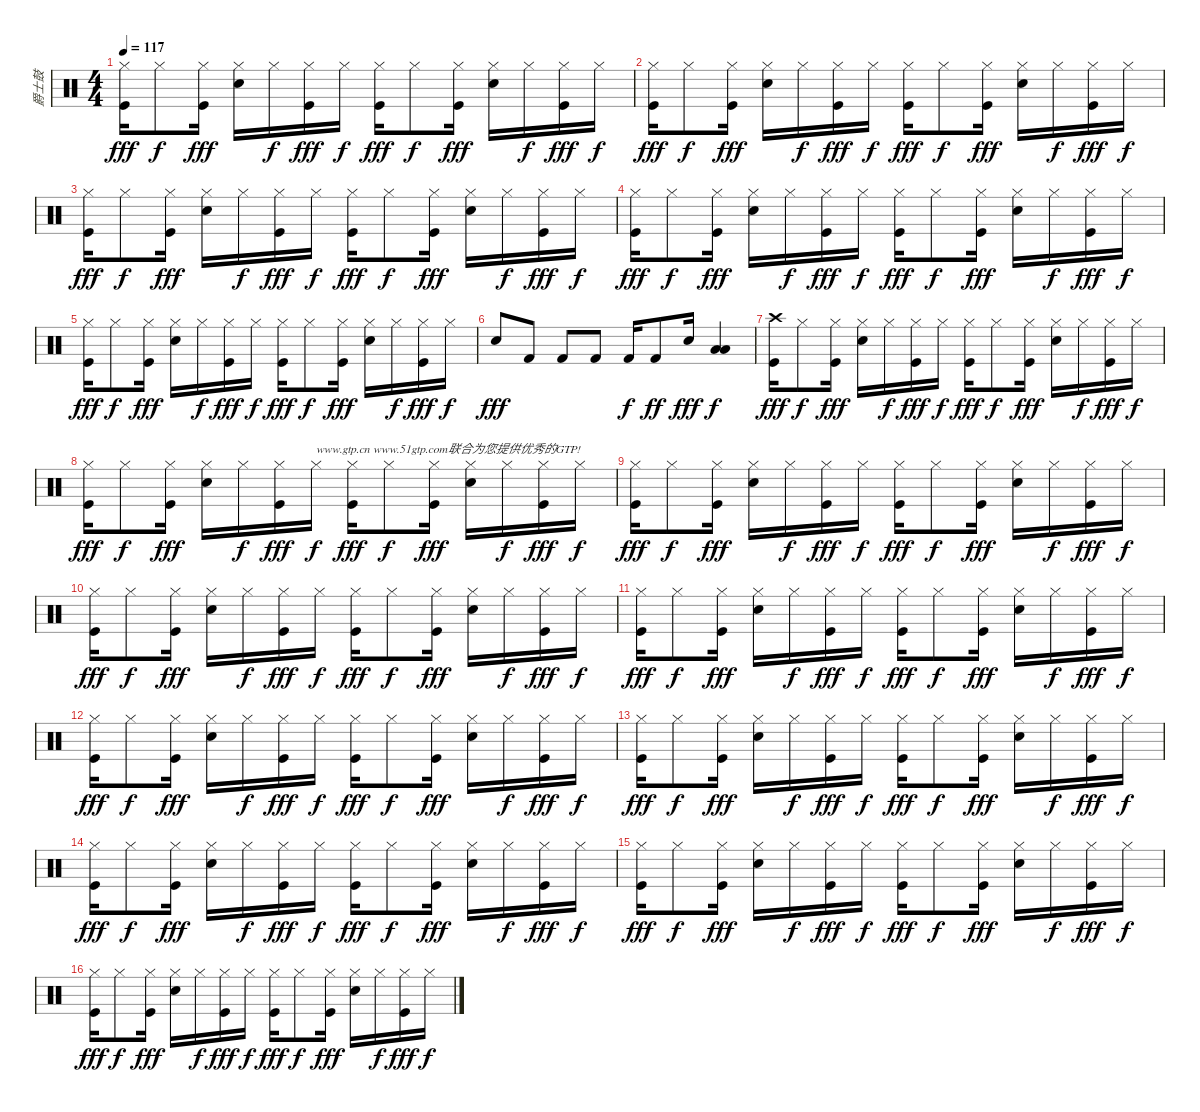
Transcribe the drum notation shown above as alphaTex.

\track ("爵士鼓" "爵士鼓") {instrument percussion}
\staff {score}
\articulation defaults
\ts (4 4)
\tempo 117
\clef neutral
\ks c
("Kick (hit)" "Hi-Hat (closed)").16{dy fff} "Hi-Hat (closed)".8{dy f} ("Kick (hit)" "Hi-Hat (closed)").16{dy fff} ("Snare (hit) 2" "Hi-Hat (closed)").16 "Hi-Hat (closed)".16{dy f} ("Kick (hit)" "Hi-Hat (closed)").16{dy fff} "Hi-Hat (closed)".16{dy f} ("Kick (hit)" "Hi-Hat (closed)").16{dy fff} "Hi-Hat (closed)".8{dy f} ("Kick (hit)" "Hi-Hat (closed)").16{dy fff} ("Snare (hit) 2" "Hi-Hat (closed)").16 "Hi-Hat (closed)".16{dy f} ("Kick (hit)" "Hi-Hat (closed)").16{dy fff} "Hi-Hat (closed)".16{dy f} |
("Kick (hit)" "Hi-Hat (closed)").16{dy fff} "Hi-Hat (closed)".8{dy f} ("Kick (hit)" "Hi-Hat (closed)").16{dy fff} ("Snare (hit) 2" "Hi-Hat (closed)").16 "Hi-Hat (closed)".16{dy f} ("Kick (hit)" "Hi-Hat (closed)").16{dy fff} "Hi-Hat (closed)".16{dy f} ("Kick (hit)" "Hi-Hat (closed)").16{dy fff} "Hi-Hat (closed)".8{dy f} ("Kick (hit)" "Hi-Hat (closed)").16{dy fff} ("Snare (hit) 2" "Hi-Hat (closed)").16 "Hi-Hat (closed)".16{dy f} ("Kick (hit)" "Hi-Hat (closed)").16{dy fff} "Hi-Hat (closed)".16{dy f} |
("Kick (hit)" "Hi-Hat (closed)").16{dy fff} "Hi-Hat (closed)".8{dy f} ("Kick (hit)" "Hi-Hat (closed)").16{dy fff} ("Snare (hit) 2" "Hi-Hat (closed)").16 "Hi-Hat (closed)".16{dy f} ("Kick (hit)" "Hi-Hat (closed)").16{dy fff} "Hi-Hat (closed)".16{dy f} ("Kick (hit)" "Hi-Hat (closed)").16{dy fff} "Hi-Hat (closed)".8{dy f} ("Kick (hit)" "Hi-Hat (closed)").16{dy fff} ("Snare (hit) 2" "Hi-Hat (closed)").16 "Hi-Hat (closed)".16{dy f} ("Kick (hit)" "Hi-Hat (closed)").16{dy fff} "Hi-Hat (closed)".16{dy f} |
("Kick (hit)" "Hi-Hat (closed)").16{dy fff} "Hi-Hat (closed)".8{dy f} ("Kick (hit)" "Hi-Hat (closed)").16{dy fff} ("Snare (hit) 2" "Hi-Hat (closed)").16 "Hi-Hat (closed)".16{dy f} ("Kick (hit)" "Hi-Hat (closed)").16{dy fff} "Hi-Hat (closed)".16{dy f} ("Kick (hit)" "Hi-Hat (closed)").16{dy fff} "Hi-Hat (closed)".8{dy f} ("Kick (hit)" "Hi-Hat (closed)").16{dy fff} ("Snare (hit) 2" "Hi-Hat (closed)").16 "Hi-Hat (closed)".16{dy f} ("Kick (hit)" "Hi-Hat (closed)").16{dy fff} "Hi-Hat (closed)".16{dy f} |
("Kick (hit)" "Hi-Hat (closed)").16{dy fff} "Hi-Hat (closed)".8{dy f} ("Kick (hit)" "Hi-Hat (closed)").16{dy fff} ("Snare (hit) 2" "Hi-Hat (closed)").16 "Hi-Hat (closed)".16{dy f} ("Kick (hit)" "Hi-Hat (closed)").16{dy fff} "Hi-Hat (closed)".16{dy f} ("Kick (hit)" "Hi-Hat (closed)").16{dy fff} "Hi-Hat (closed)".8{dy f} ("Kick (hit)" "Hi-Hat (closed)").16{dy fff} ("Snare (hit) 2" "Hi-Hat (closed)").16 "Hi-Hat (closed)".16{dy f} ("Kick (hit)" "Hi-Hat (closed)").16{dy fff} "Hi-Hat (closed)".16{dy f} |
"Snare (hit) 2".8{dy fff} "Kick (hit) 2".8 "Kick (hit) 2".8 "Kick (hit) 2".8 "Kick (hit) 2".16{dy f} "Kick (hit) 2".8{dy ff} "Snare (hit) 2".16{dy fff} ("Low Tom (hit)" "Low Floor Tom (hit)").4{dy f} |
("Kick (hit)" "Crash high (hit)").16{dy fff} "Hi-Hat (closed)".8{dy f} ("Kick (hit)" "Hi-Hat (closed)").16{dy fff} ("Snare (hit) 2" "Hi-Hat (closed)").16 "Hi-Hat (closed)".16{dy f} ("Kick (hit)" "Hi-Hat (closed)").16{dy fff} "Hi-Hat (closed)".16{dy f} ("Kick (hit)" "Hi-Hat (closed)").16{dy fff} "Hi-Hat (closed)".8{dy f} ("Kick (hit)" "Hi-Hat (closed)").16{dy fff} ("Snare (hit) 2" "Hi-Hat (closed)").16 "Hi-Hat (closed)".16{dy f} ("Kick (hit)" "Hi-Hat (closed)").16{dy fff} "Hi-Hat (closed)".16{dy f} |
("Kick (hit)" "Hi-Hat (closed)").16{dy fff} "Hi-Hat (closed)".8{dy f} ("Kick (hit)" "Hi-Hat (closed)").16{dy fff} ("Snare (hit) 2" "Hi-Hat (closed)").16 "Hi-Hat (closed)".16{dy f} ("Kick (hit)" "Hi-Hat (closed)").16{dy fff} "Hi-Hat (closed)".16{txt "www.gtp.cn www.51gtp.com联合为您提供优秀的GTP!" dy f} ("Kick (hit)" "Hi-Hat (closed)").16{dy fff} "Hi-Hat (closed)".8{dy f} ("Kick (hit)" "Hi-Hat (closed)").16{dy fff} ("Snare (hit) 2" "Hi-Hat (closed)").16 "Hi-Hat (closed)".16{dy f} ("Kick (hit)" "Hi-Hat (closed)").16{dy fff} "Hi-Hat (closed)".16{dy f} |
("Kick (hit)" "Hi-Hat (closed)").16{dy fff} "Hi-Hat (closed)".8{dy f} ("Kick (hit)" "Hi-Hat (closed)").16{dy fff} ("Snare (hit) 2" "Hi-Hat (closed)").16 "Hi-Hat (closed)".16{dy f} ("Kick (hit)" "Hi-Hat (closed)").16{dy fff} "Hi-Hat (closed)".16{dy f} ("Kick (hit)" "Hi-Hat (closed)").16{dy fff} "Hi-Hat (closed)".8{dy f} ("Kick (hit)" "Hi-Hat (closed)").16{dy fff} ("Snare (hit) 2" "Hi-Hat (closed)").16 "Hi-Hat (closed)".16{dy f} ("Kick (hit)" "Hi-Hat (closed)").16{dy fff} "Hi-Hat (closed)".16{dy f} |
("Kick (hit)" "Hi-Hat (closed)").16{dy fff} "Hi-Hat (closed)".8{dy f} ("Kick (hit)" "Hi-Hat (closed)").16{dy fff} ("Snare (hit) 2" "Hi-Hat (closed)").16 "Hi-Hat (closed)".16{dy f} ("Kick (hit)" "Hi-Hat (closed)").16{dy fff} "Hi-Hat (closed)".16{dy f} ("Kick (hit)" "Hi-Hat (closed)").16{dy fff} "Hi-Hat (closed)".8{dy f} ("Kick (hit)" "Hi-Hat (closed)").16{dy fff} ("Snare (hit) 2" "Hi-Hat (closed)").16 "Hi-Hat (closed)".16{dy f} ("Kick (hit)" "Hi-Hat (closed)").16{dy fff} "Hi-Hat (closed)".16{dy f} |
("Kick (hit)" "Hi-Hat (closed)").16{dy fff} "Hi-Hat (closed)".8{dy f} ("Kick (hit)" "Hi-Hat (closed)").16{dy fff} ("Snare (hit) 2" "Hi-Hat (closed)").16 "Hi-Hat (closed)".16{dy f} ("Kick (hit)" "Hi-Hat (closed)").16{dy fff} "Hi-Hat (closed)".16{dy f} ("Kick (hit)" "Hi-Hat (closed)").16{dy fff} "Hi-Hat (closed)".8{dy f} ("Kick (hit)" "Hi-Hat (closed)").16{dy fff} ("Snare (hit) 2" "Hi-Hat (closed)").16 "Hi-Hat (closed)".16{dy f} ("Kick (hit)" "Hi-Hat (closed)").16{dy fff} "Hi-Hat (closed)".16{dy f} |
("Kick (hit)" "Hi-Hat (closed)").16{dy fff} "Hi-Hat (closed)".8{dy f} ("Kick (hit)" "Hi-Hat (closed)").16{dy fff} ("Snare (hit) 2" "Hi-Hat (closed)").16 "Hi-Hat (closed)".16{dy f} ("Kick (hit)" "Hi-Hat (closed)").16{dy fff} "Hi-Hat (closed)".16{dy f} ("Kick (hit)" "Hi-Hat (closed)").16{dy fff} "Hi-Hat (closed)".8{dy f} ("Kick (hit)" "Hi-Hat (closed)").16{dy fff} ("Snare (hit) 2" "Hi-Hat (closed)").16 "Hi-Hat (closed)".16{dy f} ("Kick (hit)" "Hi-Hat (closed)").16{dy fff} "Hi-Hat (closed)".16{dy f} |
("Kick (hit)" "Hi-Hat (closed)").16{dy fff} "Hi-Hat (closed)".8{dy f} ("Kick (hit)" "Hi-Hat (closed)").16{dy fff} ("Snare (hit) 2" "Hi-Hat (closed)").16 "Hi-Hat (closed)".16{dy f} ("Kick (hit)" "Hi-Hat (closed)").16{dy fff} "Hi-Hat (closed)".16{dy f} ("Kick (hit)" "Hi-Hat (closed)").16{dy fff} "Hi-Hat (closed)".8{dy f} ("Kick (hit)" "Hi-Hat (closed)").16{dy fff} ("Snare (hit) 2" "Hi-Hat (closed)").16 "Hi-Hat (closed)".16{dy f} ("Kick (hit)" "Hi-Hat (closed)").16{dy fff} "Hi-Hat (closed)".16{dy f} |
("Kick (hit)" "Hi-Hat (closed)").16{dy fff} "Hi-Hat (closed)".8{dy f} ("Kick (hit)" "Hi-Hat (closed)").16{dy fff} ("Snare (hit) 2" "Hi-Hat (closed)").16 "Hi-Hat (closed)".16{dy f} ("Kick (hit)" "Hi-Hat (closed)").16{dy fff} "Hi-Hat (closed)".16{dy f} ("Kick (hit)" "Hi-Hat (closed)").16{dy fff} "Hi-Hat (closed)".8{dy f} ("Kick (hit)" "Hi-Hat (closed)").16{dy fff} ("Snare (hit) 2" "Hi-Hat (closed)").16 "Hi-Hat (closed)".16{dy f} ("Kick (hit)" "Hi-Hat (closed)").16{dy fff} "Hi-Hat (closed)".16{dy f} |
("Kick (hit)" "Hi-Hat (closed)").16{dy fff} "Hi-Hat (closed)".8{dy f} ("Kick (hit)" "Hi-Hat (closed)").16{dy fff} ("Snare (hit) 2" "Hi-Hat (closed)").16 "Hi-Hat (closed)".16{dy f} ("Kick (hit)" "Hi-Hat (closed)").16{dy fff} "Hi-Hat (closed)".16{dy f} ("Kick (hit)" "Hi-Hat (closed)").16{dy fff} "Hi-Hat (closed)".8{dy f} ("Kick (hit)" "Hi-Hat (closed)").16{dy fff} ("Snare (hit) 2" "Hi-Hat (closed)").16 "Hi-Hat (closed)".16{dy f} ("Kick (hit)" "Hi-Hat (closed)").16{dy fff} "Hi-Hat (closed)".16{dy f} |
("Kick (hit)" "Hi-Hat (closed)").16{dy fff} "Hi-Hat (closed)".8{dy f} ("Kick (hit)" "Hi-Hat (closed)").16{dy fff} ("Snare (hit) 2" "Hi-Hat (closed)").16 "Hi-Hat (closed)".16{dy f} ("Kick (hit)" "Hi-Hat (closed)").16{dy fff} "Hi-Hat (closed)".16{dy f} ("Kick (hit)" "Hi-Hat (closed)").16{dy fff} "Hi-Hat (closed)".8{dy f} ("Kick (hit)" "Hi-Hat (closed)").16{dy fff} ("Snare (hit) 2" "Hi-Hat (closed)").16 "Hi-Hat (closed)".16{dy f} ("Kick (hit)" "Hi-Hat (closed)").16{dy fff} "Hi-Hat (closed)".16{dy f}
